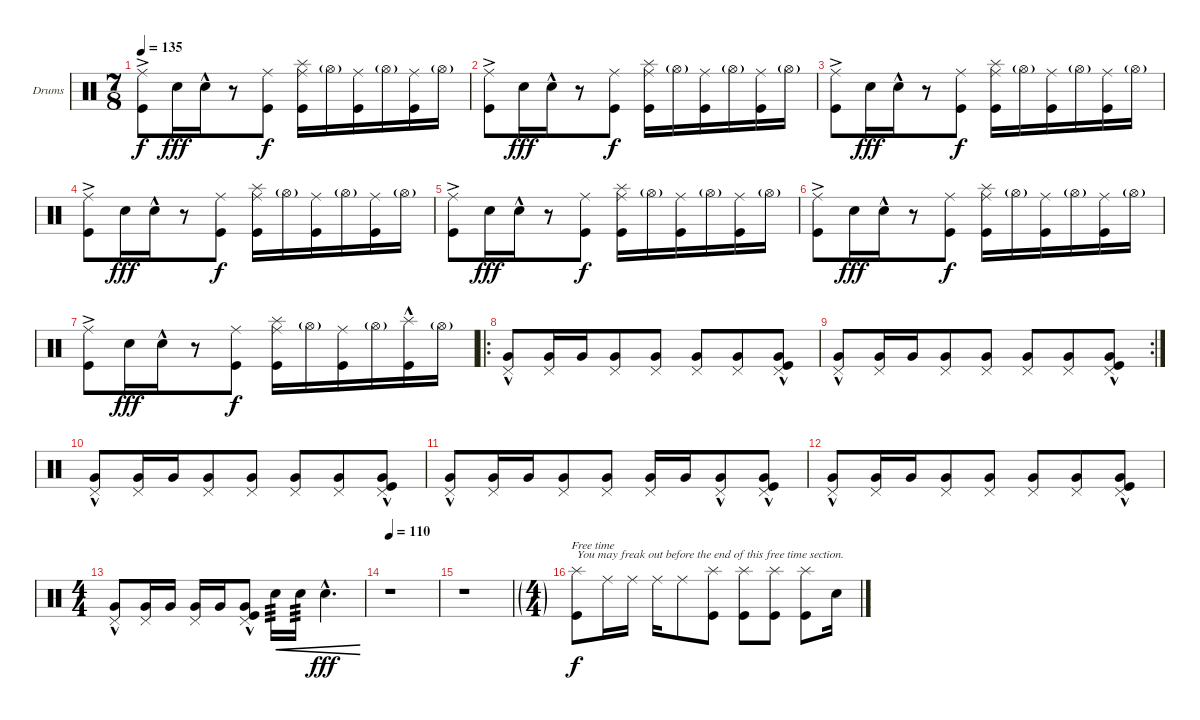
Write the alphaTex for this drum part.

\defaultSystemsLayout 4
\bracketExtendMode groupsimilarinstruments
\firstSystemTrackNameOrientation horizontal
\otherSystemsTrackNameOrientation horizontal
\track ("Drumkit" "Drums") {instrument percussion}
\staff {score}
\articulation defaults
\ts (7 8)
\tempo 135
\clef neutral
\scale
0.333333
\ks c
("Kick (hit)" "Ride (middle)"{ac}).8{dy f} "Snare (hit) 2".16{dy fff} "Snare (hit) 2"{hac}.16 r.8 ("Kick (hit)" "Ride (middle)").8{dy f} ("Kick (hit)" "Ride (middle)" "Splash (hit)").16 "Hi-Hat (open)"{g}.16 ("Kick (hit)" "Ride (middle)").16 "Hi-Hat (open)"{g}.16 ("Kick (hit)" "Ride (middle)").16 "Hi-Hat (open)"{g}.16 |
\scale
0.333333 ("Kick (hit)" "Ride (middle)"{ac}).8 "Snare (hit) 2".16{dy fff} "Snare (hit) 2"{hac}.16 r.8 ("Kick (hit)" "Ride (middle)").8{dy f} ("Kick (hit)" "Ride (middle)" "Splash (hit)").16 "Hi-Hat (open)"{g}.16 ("Kick (hit)" "Ride (middle)").16 "Hi-Hat (open)"{g}.16 ("Kick (hit)" "Ride (middle)").16 "Hi-Hat (open)"{g}.16 |
\scale
0.333333 ("Kick (hit)" "Ride (middle)"{ac}).8 "Snare (hit) 2".16{dy fff} "Snare (hit) 2"{hac}.16 r.8 ("Kick (hit)" "Ride (middle)").8{dy f} ("Kick (hit)" "Ride (middle)" "Splash (hit)").16 "Hi-Hat (open)"{g}.16 ("Kick (hit)" "Ride (middle)").16 "Hi-Hat (open)"{g}.16 ("Kick (hit)" "Ride (middle)").16 "Hi-Hat (open)"{g}.16 |
\scale
0.333333 ("Kick (hit)" "Ride (middle)"{ac}).8 "Snare (hit) 2".16{dy fff} "Snare (hit) 2"{hac}.16 r.8 ("Kick (hit)" "Ride (middle)").8{dy f} ("Kick (hit)" "Ride (middle)" "Splash (hit)").16 "Hi-Hat (open)"{g}.16 ("Kick (hit)" "Ride (middle)").16 "Hi-Hat (open)"{g}.16 ("Kick (hit)" "Ride (middle)").16 "Hi-Hat (open)"{g}.16 |
\scale
0.333333 ("Kick (hit)" "Ride (middle)"{ac}).8 "Snare (hit) 2".16{dy fff} "Snare (hit) 2"{hac}.16 r.8 ("Kick (hit)" "Ride (middle)").8{dy f} ("Kick (hit)" "Ride (middle)" "Splash (hit)").16 "Hi-Hat (open)"{g}.16 ("Kick (hit)" "Ride (middle)").16 "Hi-Hat (open)"{g}.16 ("Kick (hit)" "Ride (middle)").16 "Hi-Hat (open)"{g}.16 |
\scale
0.333333 ("Kick (hit)" "Ride (middle)"{ac}).8 "Snare (hit) 2".16{dy fff} "Snare (hit) 2"{hac}.16 r.8 ("Kick (hit)" "Ride (middle)").8{dy f} ("Kick (hit)" "Ride (middle)" "Splash (hit)").16 "Hi-Hat (open)"{g}.16 ("Kick (hit)" "Ride (middle)").16 "Hi-Hat (open)"{g}.16 ("Kick (hit)" "Ride (middle)").16 "Hi-Hat (open)"{g}.16 |
\scale
0.301075 ("Kick (hit)" "Ride (middle)"{ac}).8 "Snare (hit) 2".16{dy fff} "Snare (hit) 2"{hac}.16 r.8 ("Kick (hit)" "Ride (middle)").8{dy f} ("Kick (hit)" "Ride (middle)" "Splash (hit)").16 "Hi-Hat (open)"{g}.16 ("Kick (hit)" "Ride (middle)").16 "Hi-Hat (open)"{g}.16 ("Kick (hit)"{hac} "Splash (hit)").16 "Hi-Hat (open)"{g}.16 |
\ro
\scale
0.365591 ("Very Low Tom (hit)"{hac} "Pedal Hi-Hat (hit)").8 ("Very Low Tom (hit)" "Pedal Hi-Hat (hit)").16 "Very Low Tom (hit)".16 ("Very Low Tom (hit)" "Pedal Hi-Hat (hit)").8 ("Pedal Hi-Hat (hit)" "Very Low Tom (hit)").8 ("Pedal Hi-Hat (hit)" "Very Low Tom (hit)").8 ("Pedal Hi-Hat (hit)" "Very Low Tom (hit)").8 ("Pedal Hi-Hat (hit)" "Kick (hit)"{hac} "Very Low Tom (hit)").8 |
\rc 2
\scale
0.333333 ("Very Low Tom (hit)"{hac} "Pedal Hi-Hat (hit)").8 ("Very Low Tom (hit)" "Pedal Hi-Hat (hit)").16 "Very Low Tom (hit)".16 ("Very Low Tom (hit)" "Pedal Hi-Hat (hit)").8 ("Pedal Hi-Hat (hit)" "Very Low Tom (hit)").8 ("Pedal Hi-Hat (hit)" "Very Low Tom (hit)").8 ("Pedal Hi-Hat (hit)" "Very Low Tom (hit)").8 ("Pedal Hi-Hat (hit)" "Kick (hit)"{hac} "Very Low Tom (hit)").8 |
\scale
0.333333 ("Very Low Tom (hit)"{hac} "Pedal Hi-Hat (hit)").8 ("Very Low Tom (hit)" "Pedal Hi-Hat (hit)").16 "Very Low Tom (hit)".16 ("Very Low Tom (hit)" "Pedal Hi-Hat (hit)").8 ("Pedal Hi-Hat (hit)" "Very Low Tom (hit)").8 ("Pedal Hi-Hat (hit)" "Very Low Tom (hit)").8 ("Pedal Hi-Hat (hit)" "Very Low Tom (hit)").8 ("Pedal Hi-Hat (hit)" "Kick (hit)"{hac} "Very Low Tom (hit)").8 |
\scale
0.333333 ("Very Low Tom (hit)"{hac} "Pedal Hi-Hat (hit)").8 ("Very Low Tom (hit)" "Pedal Hi-Hat (hit)").16 "Very Low Tom (hit)".16 ("Very Low Tom (hit)" "Pedal Hi-Hat (hit)").8 ("Pedal Hi-Hat (hit)" "Very Low Tom (hit)").8 ("Pedal Hi-Hat (hit)" "Very Low Tom (hit)").16 "Very Low Tom (hit)".16 ("Pedal Hi-Hat (hit)" "Very Low Tom (hit)"{hac}).8 ("Pedal Hi-Hat (hit)" "Kick (hit)"{hac} "Very Low Tom (hit)").8 |
\scale
0.333333 ("Very Low Tom (hit)"{hac} "Pedal Hi-Hat (hit)").8 ("Very Low Tom (hit)" "Pedal Hi-Hat (hit)").16 "Very Low Tom (hit)".16 ("Very Low Tom (hit)" "Pedal Hi-Hat (hit)").8 ("Pedal Hi-Hat (hit)" "Very Low Tom (hit)").8 ("Pedal Hi-Hat (hit)" "Very Low Tom (hit)").8 ("Pedal Hi-Hat (hit)" "Very Low Tom (hit)").8 ("Pedal Hi-Hat (hit)" "Kick (hit)"{hac} "Very Low Tom (hit)").8 |
\ts (4 4)
\scale
0.474178 ("Very Low Tom (hit)"{hac} "Pedal Hi-Hat (hit)").8 ("Very Low Tom (hit)" "Pedal Hi-Hat (hit)").16 "Very Low Tom (hit)".16 ("Very Low Tom (hit)" "Pedal Hi-Hat (hit)").16 "Very Low Tom (hit)".16 ("Pedal Hi-Hat (hit)" "Very Low Tom (hit)"{hac} "Kick (hit)").8 "Snare (hit) 2".16{tp 3 cre} "Snare (hit) 2".16{tp 3 cre} "Snare (hit) 2"{hac}.4{d cre dy fff} |
\tempo 110
\scale
0.262911 r.1 |
\scale
0.262911 r.1 |
\ft
\scale
0.333333 ("Kick (hit)" "Splash (hit)").8{txt "You may freak out before the end of this free time section." dy f} "Ride (middle)".16 "Ride (middle)".16 "Ride (middle)".16 "Ride (middle)".8 ("Kick (hit)" "Splash (hit)").8 ("Kick (hit)" "Splash (hit)").8 ("Kick (hit)" "Splash (hit)").8 ("Kick (hit)" "Splash (hit)").8 "Snare (hit) 2".16
